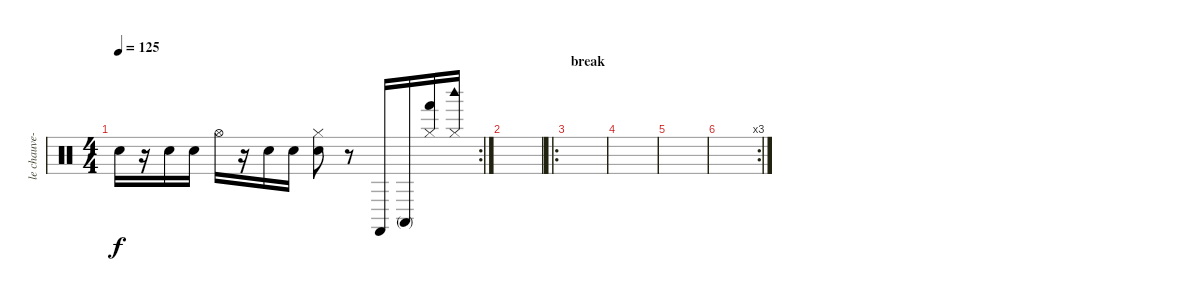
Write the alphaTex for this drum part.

\track ("le chauve-(batterie)" "le chauve-") {instrument percussion}
\staff {score}
\articulation defaults
\rc 2
\ts (4 4)
\tempo 125
\clef neutral
\ks c "Electric Snare (hit)".16{dy f}
r.16 "Electric Snare (hit)".16 "Electric Snare (hit)".16 "Hi-Hat (open)".16 r.16 "Electric Snare (hit)".16 "Electric Snare (hit)".16 ("Hi-Hat (closed)" "Electric Snare (hit)").8 r.8 "Castanets (hit)".16 "Conga high (mute)".16 ("Hand (hit)" "Hi-Hat (closed)").16 ("Hi-Hat (closed)" "Woodblock high (hit)").16 |
|
\ro
\section ("" "break")
|
|
|
\rc 3
